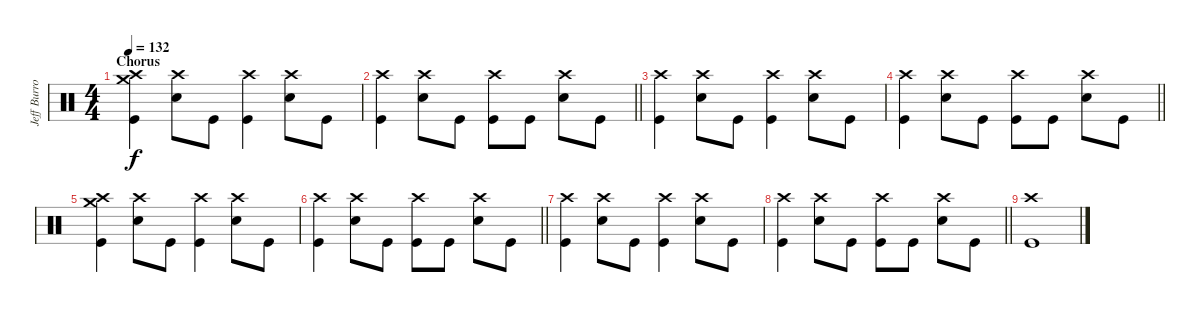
\track ("Jeff Burrows (Percussion)" "Jeff Burro") {instrument percussion}
\staff {score}
\articulation defaults
\ts (4 4)
\section ("" "Chorus")
\tempo 132
\clef neutral
\ks c
("Crash medium (hit)" "Crash high (hit)" "Kick (hit)").4{dy f} ("Crash high (hit)" "Snare (hit) 2").8 "Kick (hit)".8 ("Crash high (hit)" "Kick (hit)").4 ("Crash high (hit)" "Snare (hit) 2").8 "Kick (hit)".8 |
\barLineRight lightlight
("Crash high (hit)" "Kick (hit)").4 ("Crash high (hit)" "Snare (hit) 2").8 "Kick (hit)".8 ("Crash high (hit)" "Kick (hit)").8 "Kick (hit)".8 ("Crash high (hit)" "Snare (hit) 2").8 "Kick (hit)".8 |
("Crash high (hit)" "Kick (hit)").4 ("Crash high (hit)" "Snare (hit) 2").8 "Kick (hit)".8 ("Crash high (hit)" "Kick (hit)").4 ("Crash high (hit)" "Snare (hit) 2").8 "Kick (hit)".8 |
\barLineRight lightlight
("Crash high (hit)" "Kick (hit)").4 ("Crash high (hit)" "Snare (hit) 2").8 "Kick (hit)".8 ("Crash high (hit)" "Kick (hit)").8 "Kick (hit)".8 ("Crash high (hit)" "Snare (hit) 2").8 "Kick (hit)".8 |
("Crash medium (hit)" "Crash high (hit)" "Kick (hit)").4 ("Crash high (hit)" "Snare (hit) 2").8 "Kick (hit)".8 ("Crash high (hit)" "Kick (hit)").4 ("Crash high (hit)" "Snare (hit) 2").8 "Kick (hit)".8 |
\barLineRight lightlight
("Crash high (hit)" "Kick (hit)").4 ("Crash high (hit)" "Snare (hit) 2").8 "Kick (hit)".8 ("Crash high (hit)" "Kick (hit)").8 "Kick (hit)".8 ("Crash high (hit)" "Snare (hit) 2").8 "Kick (hit)".8 |
("Crash high (hit)" "Kick (hit)").4 ("Crash high (hit)" "Snare (hit) 2").8 "Kick (hit)".8 ("Crash high (hit)" "Kick (hit)").4 ("Crash high (hit)" "Snare (hit) 2").8 "Kick (hit)".8 |
\barLineRight lightlight
("Crash high (hit)" "Kick (hit)").4 ("Crash high (hit)" "Snare (hit) 2").8 "Kick (hit)".8 ("Crash high (hit)" "Kick (hit)").8 "Kick (hit)".8 ("Crash high (hit)" "Snare (hit) 2").8 "Kick (hit)".8 |
("Crash high (hit)" "Kick (hit)").1
